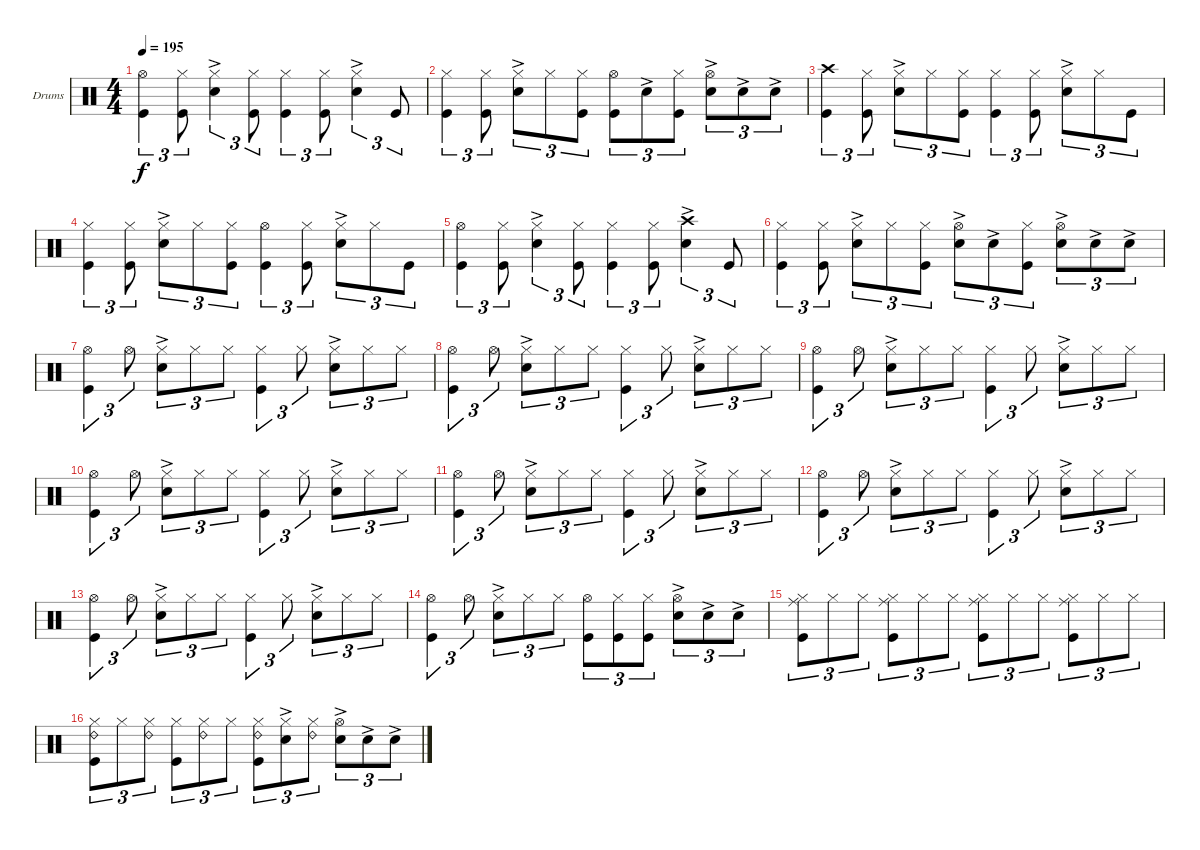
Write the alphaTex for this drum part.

\defaultSystemsLayout 4
\bracketExtendMode groupsimilarinstruments
\firstSystemTrackNameOrientation horizontal
\otherSystemsTrackNameOrientation horizontal
\track ("Drumkit" "Drums") {instrument percussion}
\staff {score}
\articulation defaults
\ts (4 4)
\tempo 195
\clef neutral
\ks c
("Hi-Hat (open)" "Kick (hit)").4{tu (3 2) dy f} ("Kick (hit)" "Hi-Hat (closed)").8{tu (3 2)} ("Snare (hit) 2"{ac} "Hi-Hat (closed)").4{tu (3 2)} ("Kick (hit)" "Hi-Hat (closed)").8{tu (3 2)} ("Hi-Hat (closed)" "Kick (hit)").4{tu (3 2)} ("Kick (hit)" "Hi-Hat (closed)").8{tu (3 2)} ("Snare (hit) 2"{ac} "Hi-Hat (closed)").4{tu (3 2)} "Kick (hit)".8{tu (3 2)} |
("Kick (hit)" "Hi-Hat (closed)").4{tu (3 2)} ("Kick (hit)" "Hi-Hat (closed)").8{tu (3 2)} ("Snare (hit) 2"{ac} "Hi-Hat (closed)").8{tu (3 2)} "Hi-Hat (closed)".8{tu (3 2)} ("Kick (hit)" "Hi-Hat (closed)").8{tu (3 2)} ("Hi-Hat (open)" "Kick (hit)").8{tu (3 2)} "Snare (hit) 2"{ac}.8{tu (3 2)} ("Kick (hit)" "Hi-Hat (closed)").8{tu (3 2)} ("Snare (hit) 2"{ac} "Hi-Hat (open)").8{tu (3 2)} "Snare (hit) 2"{ac}.8{tu (3 2)} "Snare (hit) 2"{ac}.8{tu (3 2)} |
("Kick (hit)" "Crash high (hit)").4{tu (3 2)} ("Kick (hit)" "Hi-Hat (closed)").8{tu (3 2)} ("Snare (hit) 2"{ac} "Hi-Hat (closed)").8{tu (3 2)} "Hi-Hat (closed)".8{tu (3 2)} ("Kick (hit)" "Hi-Hat (closed)").8{tu (3 2)} ("Hi-Hat (closed)" "Kick (hit)").4{tu (3 2)} ("Kick (hit)" "Hi-Hat (closed)").8{tu (3 2)} ("Snare (hit) 2"{ac} "Hi-Hat (closed)").8{tu (3 2)} "Hi-Hat (closed)".8{tu (3 2)} "Kick (hit)".8{tu (3 2)} |
("Kick (hit)" "Hi-Hat (closed)").4{tu (3 2)} ("Kick (hit)" "Hi-Hat (closed)").8{tu (3 2)} ("Snare (hit) 2"{ac} "Hi-Hat (closed)").8{tu (3 2)} "Hi-Hat (closed)".8{tu (3 2)} ("Kick (hit)" "Hi-Hat (closed)").8{tu (3 2)} ("Hi-Hat (open)" "Kick (hit)").4{tu (3 2)} ("Kick (hit)" "Hi-Hat (closed)").8{tu (3 2)} ("Snare (hit) 2"{ac} "Hi-Hat (closed)").8{tu (3 2)} "Hi-Hat (closed)".8{tu (3 2)} "Kick (hit)".8{tu (3 2)} |
("Hi-Hat (open)" "Kick (hit)").4{tu (3 2)} ("Kick (hit)" "Hi-Hat (closed)").8{tu (3 2)} ("Snare (hit) 2"{ac} "Hi-Hat (closed)").4{tu (3 2)} ("Kick (hit)" "Hi-Hat (closed)").8{tu (3 2)} ("Hi-Hat (closed)" "Kick (hit)").4{tu (3 2)} ("Kick (hit)" "Hi-Hat (closed)").8{tu (3 2)} ("Snare (hit) 2"{ac} "Crash high (hit)").4{tu (3 2)} "Kick (hit)".8{tu (3 2)} |
("Kick (hit)" "Hi-Hat (closed)").4{tu (3 2)} ("Kick (hit)" "Hi-Hat (closed)").8{tu (3 2)} ("Snare (hit) 2"{ac} "Hi-Hat (closed)").8{tu (3 2)} "Hi-Hat (closed)".8{tu (3 2)} ("Kick (hit)" "Hi-Hat (closed)").8{tu (3 2)} ("Hi-Hat (open)" "Snare (hit) 2"{ac}).8{tu (3 2)} "Snare (hit) 2"{ac}.8{tu (3 2)} ("Kick (hit)" "Hi-Hat (closed)").8{tu (3 2)} ("Snare (hit) 2"{ac} "Hi-Hat (open)").8{tu (3 2)} "Snare (hit) 2"{ac}.8{tu (3 2)} "Snare (hit) 2"{ac}.8{tu (3 2)} |
("Hi-Hat (open)" "Kick (hit)").4{tu (3 2)} "Hi-Hat (open)".8{tu (3 2)} ("Hi-Hat (closed)" "Snare (hit) 2"{ac}).8{tu (3 2)} "Hi-Hat (closed)".8{tu (3 2)} "Hi-Hat (closed)".8{tu (3 2)} ("Hi-Hat (closed)" "Kick (hit)").4{tu (3 2)} "Hi-Hat (closed)".8{tu (3 2)} ("Hi-Hat (closed)" "Snare (hit) 2"{ac}).8{tu (3 2)} "Hi-Hat (closed)".8{tu (3 2)} "Hi-Hat (closed)".8{tu (3 2)} |
("Hi-Hat (open)" "Kick (hit)").4{tu (3 2)} "Hi-Hat (open)".8{tu (3 2)} ("Hi-Hat (closed)" "Snare (hit) 2"{ac}).8{tu (3 2)} "Hi-Hat (closed)".8{tu (3 2)} "Hi-Hat (closed)".8{tu (3 2)} ("Hi-Hat (closed)" "Kick (hit)").4{tu (3 2)} "Hi-Hat (closed)".8{tu (3 2)} ("Hi-Hat (closed)" "Snare (hit) 2"{ac}).8{tu (3 2)} "Hi-Hat (closed)".8{tu (3 2)} "Hi-Hat (closed)".8{tu (3 2)} |
("Hi-Hat (open)" "Kick (hit)").4{tu (3 2)} "Hi-Hat (open)".8{tu (3 2)} ("Hi-Hat (closed)" "Snare (hit) 2"{ac}).8{tu (3 2)} "Hi-Hat (closed)".8{tu (3 2)} "Hi-Hat (closed)".8{tu (3 2)} ("Hi-Hat (closed)" "Kick (hit)").4{tu (3 2)} "Hi-Hat (closed)".8{tu (3 2)} ("Hi-Hat (closed)" "Snare (hit) 2"{ac}).8{tu (3 2)} "Hi-Hat (closed)".8{tu (3 2)} "Hi-Hat (closed)".8{tu (3 2)} |
("Hi-Hat (open)" "Kick (hit)").4{tu (3 2)} "Hi-Hat (open)".8{tu (3 2)} ("Hi-Hat (closed)" "Snare (hit) 2"{ac}).8{tu (3 2)} "Hi-Hat (closed)".8{tu (3 2)} "Hi-Hat (closed)".8{tu (3 2)} ("Hi-Hat (closed)" "Kick (hit)").4{tu (3 2)} "Hi-Hat (closed)".8{tu (3 2)} ("Hi-Hat (closed)" "Snare (hit) 2"{ac}).8{tu (3 2)} "Hi-Hat (closed)".8{tu (3 2)} "Hi-Hat (closed)".8{tu (3 2)} |
("Hi-Hat (open)" "Kick (hit)").4{tu (3 2)} "Hi-Hat (open)".8{tu (3 2)} ("Hi-Hat (closed)" "Snare (hit) 2"{ac}).8{tu (3 2)} "Hi-Hat (closed)".8{tu (3 2)} "Hi-Hat (closed)".8{tu (3 2)} ("Hi-Hat (closed)" "Kick (hit)").4{tu (3 2)} "Hi-Hat (closed)".8{tu (3 2)} ("Hi-Hat (closed)" "Snare (hit) 2"{ac}).8{tu (3 2)} "Hi-Hat (closed)".8{tu (3 2)} "Hi-Hat (closed)".8{tu (3 2)} |
("Hi-Hat (open)" "Kick (hit)").4{tu (3 2)} "Hi-Hat (open)".8{tu (3 2)} ("Hi-Hat (closed)" "Snare (hit) 2"{ac}).8{tu (3 2)} "Hi-Hat (closed)".8{tu (3 2)} "Hi-Hat (closed)".8{tu (3 2)} ("Hi-Hat (closed)" "Kick (hit)").4{tu (3 2)} "Hi-Hat (closed)".8{tu (3 2)} ("Hi-Hat (closed)" "Snare (hit) 2"{ac}).8{tu (3 2)} "Hi-Hat (closed)".8{tu (3 2)} "Hi-Hat (closed)".8{tu (3 2)} |
("Hi-Hat (open)" "Kick (hit)").4{tu (3 2)} "Hi-Hat (open)".8{tu (3 2)} ("Hi-Hat (closed)" "Snare (hit) 2"{ac}).8{tu (3 2)} "Hi-Hat (closed)".8{tu (3 2)} "Hi-Hat (closed)".8{tu (3 2)} ("Hi-Hat (closed)" "Kick (hit)").4{tu (3 2)} "Hi-Hat (closed)".8{tu (3 2)} ("Hi-Hat (closed)" "Snare (hit) 2"{ac}).8{tu (3 2)} "Hi-Hat (closed)".8{tu (3 2)} "Hi-Hat (closed)".8{tu (3 2)} |
("Hi-Hat (open)" "Kick (hit)").4{tu (3 2)} "Hi-Hat (open)".8{tu (3 2)} ("Hi-Hat (closed)" "Snare (hit) 2"{ac}).8{tu (3 2)} "Hi-Hat (closed)".8{tu (3 2)} "Hi-Hat (closed)".8{tu (3 2)} ("Hi-Hat (open)" "Kick (hit)").8{tu (3 2)} ("Kick (hit)" "Hi-Hat (closed)").8{tu (3 2)} ("Hi-Hat (closed)" "Kick (hit)").8{tu (3 2)} ("Hi-Hat (open)" "Snare (hit) 2"{ac}).8{tu (3 2)} "Snare (hit) 2"{ac}.8{tu (3 2)} "Snare (hit) 2"{ac}.8{tu (3 2)} |
("Kick (hit)" "Hi-Hat (closed)" "Ride (middle)").8{tu (3 2)} "Hi-Hat (closed)".8{tu (3 2)} "Hi-Hat (closed)".8{tu (3 2)} ("Hi-Hat (closed)" "Ride (middle)" "Kick (hit)").8{tu (3 2)} "Hi-Hat (closed)".8{tu (3 2)} "Hi-Hat (closed)".8{tu (3 2)} ("Hi-Hat (closed)" "Ride (middle)" "Kick (hit)").8{tu (3 2)} "Hi-Hat (closed)".8{tu (3 2)} "Hi-Hat (closed)".8{tu (3 2)} ("Hi-Hat (closed)" "Ride (middle)" "Kick (hit)").8{tu (3 2)} "Hi-Hat (closed)".8{tu (3 2)} "Hi-Hat (closed)".8{tu (3 2)} |
("Hi-Hat (closed)" "Ride (bell) 2" "Kick (hit)").8{tu (3 2)} "Hi-Hat (closed)".8{tu (3 2)} ("Hi-Hat (closed)" "Ride (bell) 2").8{tu (3 2)} ("Hi-Hat (closed)" "Kick (hit)").8{tu (3 2)} ("Hi-Hat (closed)" "Ride (bell) 2").8{tu (3 2)} "Hi-Hat (closed)".8{tu (3 2)} ("Hi-Hat (closed)" "Ride (bell) 2" "Kick (hit)").8{tu (3 2)} ("Hi-Hat (closed)" "Snare (hit) 2"{ac}).8{tu (3 2)} ("Hi-Hat (closed)" "Ride (bell) 2").8{tu (3 2)} ("Hi-Hat (open)" "Snare (hit) 2"{ac}).8{tu (3 2)} "Snare (hit) 2"{ac}.8{tu (3 2)} "Snare (hit) 2"{ac}.8{tu (3 2)}
